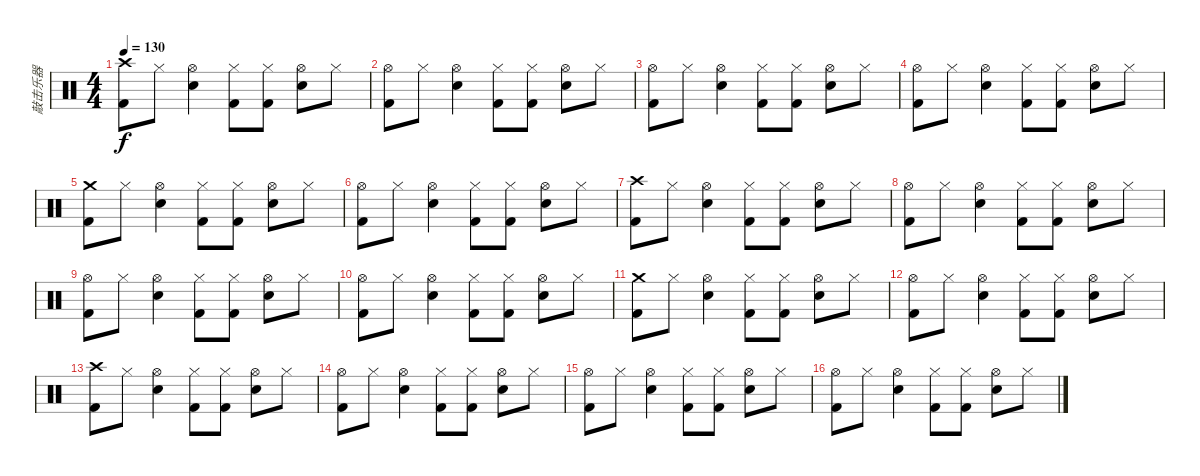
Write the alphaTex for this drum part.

\track ("敲击乐器" "敲击乐器") {instrument percussion}
\staff {score}
\articulation defaults
\ts (4 4)
\tempo 130
\clef neutral
\ks c
("Crash high (hit)" "Kick (hit) 2").8{dy f} "Hi-Hat (closed)".8 ("Electric Snare (hit)" "Hi-Hat (open)").4 ("Hi-Hat (closed)" "Kick (hit) 2").8 ("Hi-Hat (closed)" "Kick (hit) 2").8 ("Hi-Hat (open)" "Electric Snare (hit)").8 "Hi-Hat (closed)".8 |
("Hi-Hat (open)" "Kick (hit) 2").8 "Hi-Hat (closed)".8 ("Electric Snare (hit)" "Hi-Hat (open)").4 ("Hi-Hat (closed)" "Kick (hit) 2").8 ("Hi-Hat (closed)" "Kick (hit) 2").8 ("Hi-Hat (open)" "Electric Snare (hit)").8 "Hi-Hat (closed)".8 |
("Hi-Hat (open)" "Kick (hit) 2").8 "Hi-Hat (closed)".8 ("Electric Snare (hit)" "Hi-Hat (open)").4 ("Hi-Hat (closed)" "Kick (hit) 2").8 ("Hi-Hat (closed)" "Kick (hit) 2").8 ("Hi-Hat (open)" "Electric Snare (hit)").8 "Hi-Hat (closed)".8 |
("Hi-Hat (open)" "Kick (hit) 2").8 "Hi-Hat (closed)".8 ("Electric Snare (hit)" "Hi-Hat (open)").4 ("Hi-Hat (closed)" "Kick (hit) 2").8 ("Hi-Hat (closed)" "Kick (hit) 2").8 ("Hi-Hat (open)" "Electric Snare (hit)").8 "Hi-Hat (closed)".8 |
("Crash medium (hit)" "Kick (hit) 2").8 "Hi-Hat (closed)".8 ("Electric Snare (hit)" "Hi-Hat (open)").4 ("Hi-Hat (closed)" "Kick (hit) 2").8 ("Hi-Hat (closed)" "Kick (hit) 2").8 ("Hi-Hat (open)" "Electric Snare (hit)").8 "Hi-Hat (closed)".8 |
("Hi-Hat (open)" "Kick (hit) 2").8 "Hi-Hat (closed)".8 ("Electric Snare (hit)" "Hi-Hat (open)").4 ("Hi-Hat (closed)" "Kick (hit) 2").8 ("Hi-Hat (closed)" "Kick (hit) 2").8 ("Hi-Hat (open)" "Electric Snare (hit)").8 "Hi-Hat (closed)".8 |
("Crash high (hit)" "Kick (hit) 2").8 "Hi-Hat (closed)".8 ("Electric Snare (hit)" "Hi-Hat (open)").4 ("Hi-Hat (closed)" "Kick (hit) 2").8 ("Hi-Hat (closed)" "Kick (hit) 2").8 ("Hi-Hat (open)" "Electric Snare (hit)").8 "Hi-Hat (closed)".8 |
("Hi-Hat (open)" "Kick (hit) 2").8 "Hi-Hat (closed)".8 ("Electric Snare (hit)" "Hi-Hat (open)").4 ("Hi-Hat (closed)" "Kick (hit) 2").8 ("Hi-Hat (closed)" "Kick (hit) 2").8 ("Hi-Hat (open)" "Electric Snare (hit)").8 "Hi-Hat (closed)".8 |
("Hi-Hat (open)" "Kick (hit) 2").8 "Hi-Hat (closed)".8 ("Electric Snare (hit)" "Hi-Hat (open)").4 ("Hi-Hat (closed)" "Kick (hit) 2").8 ("Hi-Hat (closed)" "Kick (hit) 2").8 ("Hi-Hat (open)" "Electric Snare (hit)").8 "Hi-Hat (closed)".8 |
("Hi-Hat (open)" "Kick (hit) 2").8 "Hi-Hat (closed)".8 ("Electric Snare (hit)" "Hi-Hat (open)").4 ("Hi-Hat (closed)" "Kick (hit) 2").8 ("Hi-Hat (closed)" "Kick (hit) 2").8 ("Hi-Hat (open)" "Electric Snare (hit)").8 "Hi-Hat (closed)".8 |
("Crash medium (hit)" "Kick (hit) 2").8 "Hi-Hat (closed)".8 ("Electric Snare (hit)" "Hi-Hat (open)").4 ("Hi-Hat (closed)" "Kick (hit) 2").8 ("Hi-Hat (closed)" "Kick (hit) 2").8 ("Hi-Hat (open)" "Electric Snare (hit)").8 "Hi-Hat (closed)".8 |
("Hi-Hat (open)" "Kick (hit) 2").8 "Hi-Hat (closed)".8 ("Electric Snare (hit)" "Hi-Hat (open)").4 ("Hi-Hat (closed)" "Kick (hit) 2").8 ("Hi-Hat (closed)" "Kick (hit) 2").8 ("Hi-Hat (open)" "Electric Snare (hit)").8 "Hi-Hat (closed)".8 |
("Crash high (hit)" "Kick (hit) 2").8 "Hi-Hat (closed)".8 ("Electric Snare (hit)" "Hi-Hat (open)").4 ("Hi-Hat (closed)" "Kick (hit) 2").8 ("Hi-Hat (closed)" "Kick (hit) 2").8 ("Hi-Hat (open)" "Electric Snare (hit)").8 "Hi-Hat (closed)".8 |
("Hi-Hat (open)" "Kick (hit) 2").8 "Hi-Hat (closed)".8 ("Electric Snare (hit)" "Hi-Hat (open)").4 ("Hi-Hat (closed)" "Kick (hit) 2").8 ("Hi-Hat (closed)" "Kick (hit) 2").8 ("Hi-Hat (open)" "Electric Snare (hit)").8 "Hi-Hat (closed)".8 |
("Hi-Hat (open)" "Kick (hit) 2").8 "Hi-Hat (closed)".8 ("Electric Snare (hit)" "Hi-Hat (open)").4 ("Hi-Hat (closed)" "Kick (hit) 2").8 ("Hi-Hat (closed)" "Kick (hit) 2").8 ("Hi-Hat (open)" "Electric Snare (hit)").8 "Hi-Hat (closed)".8 |
("Hi-Hat (open)" "Kick (hit) 2").8 "Hi-Hat (closed)".8 ("Electric Snare (hit)" "Hi-Hat (open)").4 ("Hi-Hat (closed)" "Kick (hit) 2").8 ("Hi-Hat (closed)" "Kick (hit) 2").8 ("Hi-Hat (open)" "Electric Snare (hit)").8 "Hi-Hat (closed)".8
